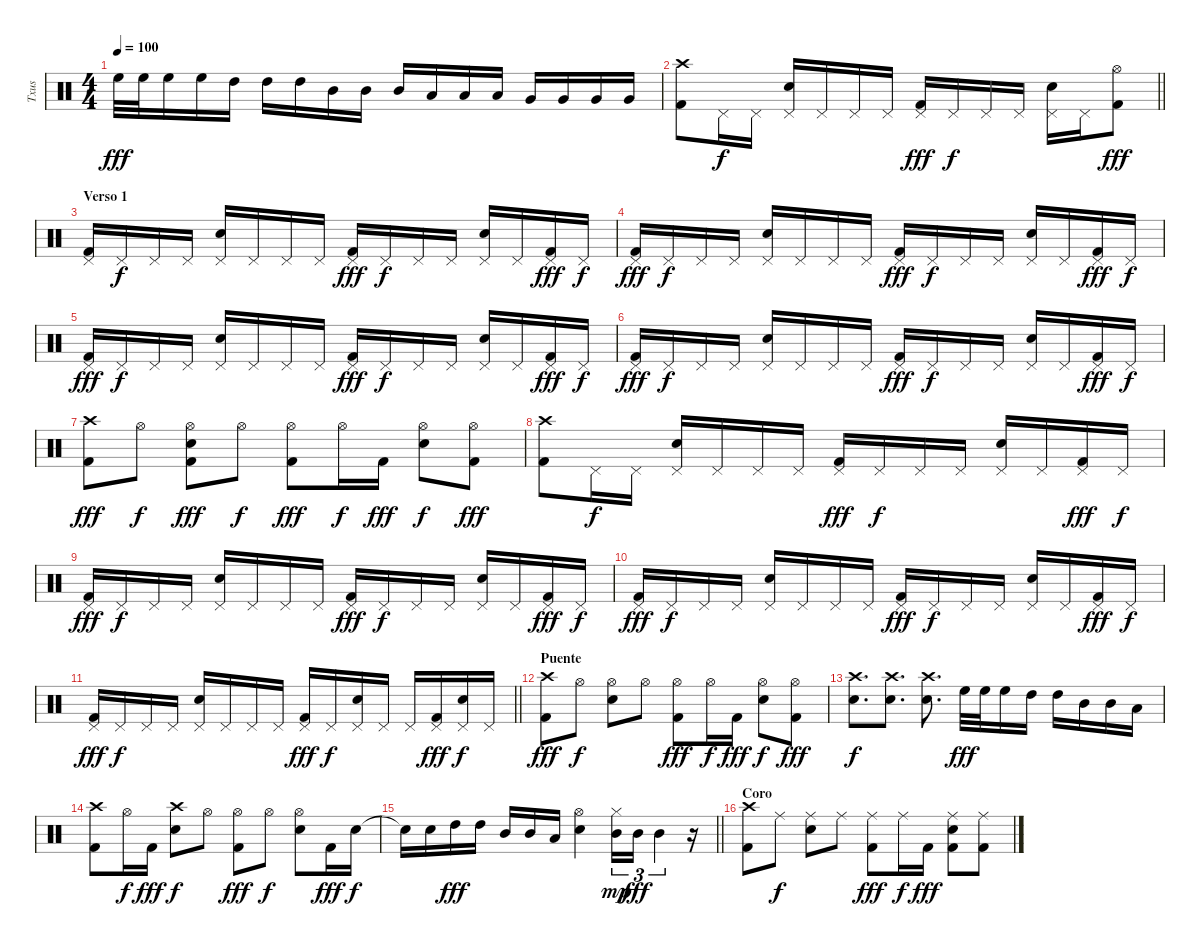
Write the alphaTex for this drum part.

\track ("Txus" "Txus") {instrument percussion}
\staff {score}
\articulation defaults
\ts (4 4)
\tempo 100
\clef neutral
\ks c "High Floor Tom (hit)".32{dy fff} "High Floor Tom (hit)".32 "High Floor Tom (hit)".16 "High Floor Tom (hit)".16 "High Tom (hit)".16 "High Tom (hit)".16 "High Tom (hit)".16 "Mid Tom (hit)".16 "Mid Tom (hit)".16 "Mid Tom (hit)".16 "Low Tom (hit)".16 "Low Tom (hit)".16 "Low Tom (hit)".16 "Very Low Tom (hit)".16 "Very Low Tom (hit)".16 "Very Low Tom (hit)".16 "Very Low Tom (hit)".16
|
\barLineRight lightlight
("Kick (hit) 2" "Crash high (hit)").8 "Pedal Hi-Hat (hit)".16{dy f} "Pedal Hi-Hat (hit)".16 ("Electric Snare (hit)" "Pedal Hi-Hat (hit)").16 "Pedal Hi-Hat (hit)".16 "Pedal Hi-Hat (hit)".16 "Pedal Hi-Hat (hit)".16 ("Kick (hit) 2" "Pedal Hi-Hat (hit)").16{dy fff} "Pedal Hi-Hat (hit)".16{dy f} "Pedal Hi-Hat (hit)".16 "Pedal Hi-Hat (hit)".16 ("Electric Snare (hit)" "Pedal Hi-Hat (hit)").16 "Pedal Hi-Hat (hit)".16 ("Kick (hit) 2" "Hi-Hat (open)").8{dy fff} |
\section ("" "Verso 1")
("Kick (hit) 2" "Pedal Hi-Hat (hit)").16 "Pedal Hi-Hat (hit)".16{dy f} "Pedal Hi-Hat (hit)".16 "Pedal Hi-Hat (hit)".16 ("Electric Snare (hit)" "Pedal Hi-Hat (hit)").16 "Pedal Hi-Hat (hit)".16 "Pedal Hi-Hat (hit)".16 "Pedal Hi-Hat (hit)".16 ("Kick (hit) 2" "Pedal Hi-Hat (hit)").16{dy fff} "Pedal Hi-Hat (hit)".16{dy f} "Pedal Hi-Hat (hit)".16 "Pedal Hi-Hat (hit)".16 ("Electric Snare (hit)" "Pedal Hi-Hat (hit)").16 "Pedal Hi-Hat (hit)".16 ("Kick (hit) 2" "Pedal Hi-Hat (hit)").16{dy fff} "Pedal Hi-Hat (hit)".16{dy f} |
("Kick (hit) 2" "Pedal Hi-Hat (hit)").16{dy fff} "Pedal Hi-Hat (hit)".16{dy f} "Pedal Hi-Hat (hit)".16 "Pedal Hi-Hat (hit)".16 ("Electric Snare (hit)" "Pedal Hi-Hat (hit)").16 "Pedal Hi-Hat (hit)".16 "Pedal Hi-Hat (hit)".16 "Pedal Hi-Hat (hit)".16 ("Kick (hit) 2" "Pedal Hi-Hat (hit)").16{dy fff} "Pedal Hi-Hat (hit)".16{dy f} "Pedal Hi-Hat (hit)".16 "Pedal Hi-Hat (hit)".16 ("Electric Snare (hit)" "Pedal Hi-Hat (hit)").16 "Pedal Hi-Hat (hit)".16 ("Kick (hit) 2" "Pedal Hi-Hat (hit)").16{dy fff} "Pedal Hi-Hat (hit)".16{dy f} |
("Kick (hit) 2" "Pedal Hi-Hat (hit)").16{dy fff} "Pedal Hi-Hat (hit)".16{dy f} "Pedal Hi-Hat (hit)".16 "Pedal Hi-Hat (hit)".16 ("Electric Snare (hit)" "Pedal Hi-Hat (hit)").16 "Pedal Hi-Hat (hit)".16 "Pedal Hi-Hat (hit)".16 "Pedal Hi-Hat (hit)".16 ("Kick (hit) 2" "Pedal Hi-Hat (hit)").16{dy fff} "Pedal Hi-Hat (hit)".16{dy f} "Pedal Hi-Hat (hit)".16 "Pedal Hi-Hat (hit)".16 ("Electric Snare (hit)" "Pedal Hi-Hat (hit)").16 "Pedal Hi-Hat (hit)".16 ("Kick (hit) 2" "Pedal Hi-Hat (hit)").16{dy fff} "Pedal Hi-Hat (hit)".16{dy f} |
("Kick (hit) 2" "Pedal Hi-Hat (hit)").16{dy fff} "Pedal Hi-Hat (hit)".16{dy f} "Pedal Hi-Hat (hit)".16 "Pedal Hi-Hat (hit)".16 ("Electric Snare (hit)" "Pedal Hi-Hat (hit)").16 "Pedal Hi-Hat (hit)".16 "Pedal Hi-Hat (hit)".16 "Pedal Hi-Hat (hit)".16 ("Kick (hit) 2" "Pedal Hi-Hat (hit)").16{dy fff} "Pedal Hi-Hat (hit)".16{dy f} "Pedal Hi-Hat (hit)".16 "Pedal Hi-Hat (hit)".16 ("Electric Snare (hit)" "Pedal Hi-Hat (hit)").16 "Pedal Hi-Hat (hit)".16 ("Kick (hit) 2" "Pedal Hi-Hat (hit)").16{dy fff} "Pedal Hi-Hat (hit)".16{dy f} |
("Kick (hit) 2" "Crash high (hit)").8{dy fff} "Hi-Hat (open)".8{dy f} ("Kick (hit) 2" "Electric Snare (hit)" "Hi-Hat (open)").8{dy fff} "Hi-Hat (open)".8{dy f} ("Kick (hit) 2" "Hi-Hat (open)").8{dy fff} "Hi-Hat (open)".16{dy f} "Kick (hit) 2".16{dy fff} ("Electric Snare (hit)" "Hi-Hat (open)").8{dy f} ("Kick (hit) 2" "Hi-Hat (open)").8{dy fff} |
("Kick (hit) 2" "Crash high (hit)").8 "Pedal Hi-Hat (hit)".16{dy f} "Pedal Hi-Hat (hit)".16 ("Electric Snare (hit)" "Pedal Hi-Hat (hit)").16 "Pedal Hi-Hat (hit)".16 "Pedal Hi-Hat (hit)".16 "Pedal Hi-Hat (hit)".16 ("Kick (hit) 2" "Pedal Hi-Hat (hit)").16{dy fff} "Pedal Hi-Hat (hit)".16{dy f} "Pedal Hi-Hat (hit)".16 "Pedal Hi-Hat (hit)".16 ("Electric Snare (hit)" "Pedal Hi-Hat (hit)").16 "Pedal Hi-Hat (hit)".16 ("Kick (hit) 2" "Pedal Hi-Hat (hit)").16{dy fff} "Pedal Hi-Hat (hit)".16{dy f} |
("Kick (hit) 2" "Pedal Hi-Hat (hit)").16{dy fff} "Pedal Hi-Hat (hit)".16{dy f} "Pedal Hi-Hat (hit)".16 "Pedal Hi-Hat (hit)".16 ("Electric Snare (hit)" "Pedal Hi-Hat (hit)").16 "Pedal Hi-Hat (hit)".16 "Pedal Hi-Hat (hit)".16 "Pedal Hi-Hat (hit)".16 ("Kick (hit) 2" "Pedal Hi-Hat (hit)").16{dy fff} "Pedal Hi-Hat (hit)".16{dy f} "Pedal Hi-Hat (hit)".16 "Pedal Hi-Hat (hit)".16 ("Electric Snare (hit)" "Pedal Hi-Hat (hit)").16 "Pedal Hi-Hat (hit)".16 ("Kick (hit) 2" "Pedal Hi-Hat (hit)").16{dy fff} "Pedal Hi-Hat (hit)".16{dy f} |
("Kick (hit) 2" "Pedal Hi-Hat (hit)").16{dy fff} "Pedal Hi-Hat (hit)".16{dy f} "Pedal Hi-Hat (hit)".16 "Pedal Hi-Hat (hit)".16 ("Electric Snare (hit)" "Pedal Hi-Hat (hit)").16 "Pedal Hi-Hat (hit)".16 "Pedal Hi-Hat (hit)".16 "Pedal Hi-Hat (hit)".16 ("Kick (hit) 2" "Pedal Hi-Hat (hit)").16{dy fff} "Pedal Hi-Hat (hit)".16{dy f} "Pedal Hi-Hat (hit)".16 "Pedal Hi-Hat (hit)".16 ("Electric Snare (hit)" "Pedal Hi-Hat (hit)").16 "Pedal Hi-Hat (hit)".16 ("Kick (hit) 2" "Pedal Hi-Hat (hit)").16{dy fff} "Pedal Hi-Hat (hit)".16{dy f} |
\barLineRight lightlight
("Kick (hit) 2" "Pedal Hi-Hat (hit)").16{dy fff} "Pedal Hi-Hat (hit)".16{dy f} "Pedal Hi-Hat (hit)".16 "Pedal Hi-Hat (hit)".16 ("Electric Snare (hit)" "Pedal Hi-Hat (hit)").16 "Pedal Hi-Hat (hit)".16 "Pedal Hi-Hat (hit)".16 "Pedal Hi-Hat (hit)".16 ("Kick (hit) 2" "Pedal Hi-Hat (hit)").16{dy fff} "Pedal Hi-Hat (hit)".16{dy f} ("Electric Snare (hit)" "Pedal Hi-Hat (hit)").16 "Pedal Hi-Hat (hit)".16 "Pedal Hi-Hat (hit)".16 ("Kick (hit) 2" "Pedal Hi-Hat (hit)").16{dy fff} ("Electric Snare (hit)" "Pedal Hi-Hat (hit)").16{dy f} "Pedal Hi-Hat (hit)".16 |
\section ("" "Puente")
("Kick (hit) 2" "Crash high (hit)").8{dy fff} "Hi-Hat (open)".8{dy f} ("Electric Snare (hit)" "Hi-Hat (open)").8 "Hi-Hat (open)".8 ("Kick (hit) 2" "Hi-Hat (open)").8{dy fff} "Hi-Hat (open)".16{dy f} "Kick (hit) 2".16{dy fff} ("Electric Snare (hit)" "Hi-Hat (open)").8{dy f} ("Kick (hit) 2" "Hi-Hat (open)").8{dy fff} |
("Electric Snare (hit)" "Crash high (hit)").8{d dy f} ("Electric Snare (hit)" "Crash high (hit)").8{d} ("Electric Snare (hit)" "Crash high (hit)").8{d} "High Floor Tom (hit)".32{dy fff} "High Floor Tom (hit)".32 "High Floor Tom (hit)".16 "High Tom (hit)".16 "High Tom (hit)".16 "Mid Tom (hit)".16 "Mid Tom (hit)".16 "Low Tom (hit)".16 |
("Kick (hit) 2" "Crash high (hit)").8 "Hi-Hat (open)".16{dy f} "Kick (hit) 2".16{dy fff} ("Electric Snare (hit)" "Crash high (hit)").8{dy f} "Hi-Hat (open)".8 ("Kick (hit) 2" "Hi-Hat (open)").8{dy fff} "Hi-Hat (open)".8{dy f} ("Electric Snare (hit)" "Hi-Hat (open)").8 "Kick (hit) 2".16{dy fff} "Electric Snare (hit)".16{dy f} |
\barLineRight lightlight "Snare (hit)"{t}.16 "Electric Snare (hit)".16 "High Tom (hit)".16{dy fff} "High Tom (hit)".16 "Mid Tom (hit)".16 "Mid Tom (hit)".16 "Low Tom (hit)".16
("Electric Snare (hit)" "Hi-Hat (open)").4 ("Mid Tom (hit)" "Hi-Hat (closed)").16{tu (3 2) dy mp} "Mid Tom (hit)".16{tu (3 2) dy fff} "Mid Tom (hit)".4{tu (3 2)} r.16 |
\section ("" "Coro")
("Kick (hit) 2" "Crash high (hit)").8 "Ride (middle)".8{dy f} ("Electric Snare (hit)" "Ride (middle)").8 "Ride (middle)".8 ("Kick (hit) 2" "Ride (middle)").8{dy fff} "Ride (middle)".16{dy f} "Kick (hit) 2".16{dy fff} ("Kick (hit) 2" "Electric Snare (hit)" "Ride (middle)").8 ("Kick (hit) 2" "Ride (middle)").8
